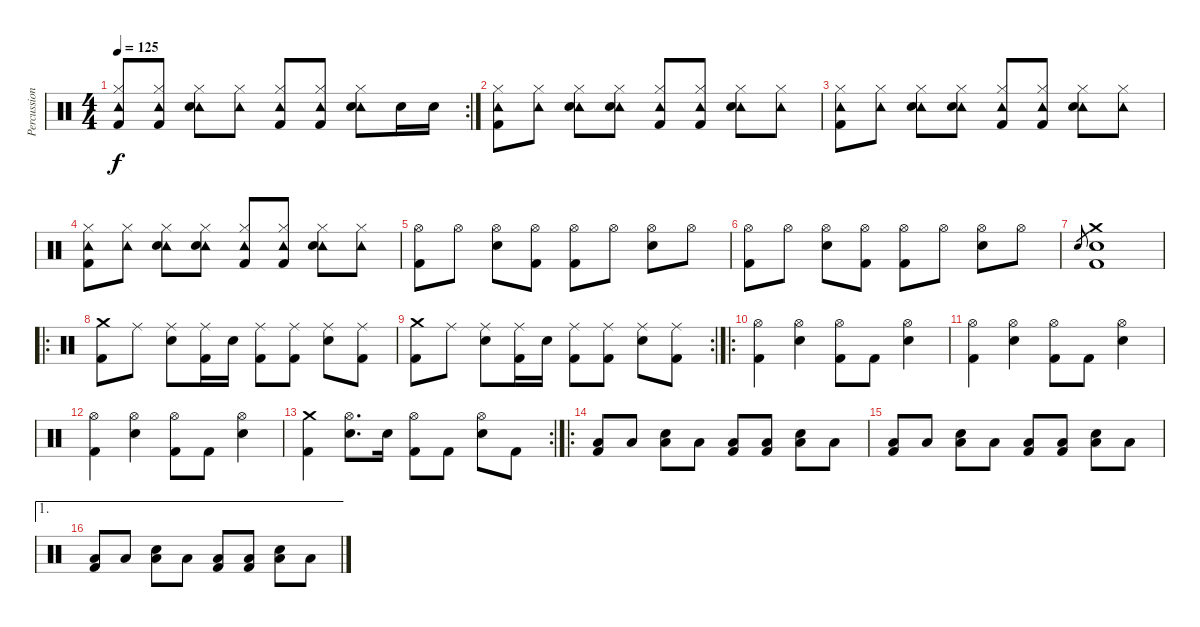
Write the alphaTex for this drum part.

\track ("Percussions" "Percussion") {instrument percussion}
\staff {score}
\articulation defaults
\rc 2
\ts (4 4)
\tempo 125
\clef neutral
\ks c
("Tambourine (hit)" "Hi-Hat (closed)" "Kick (hit) 2").8{dy f} ("Tambourine (hit)" "Hi-Hat (closed)" "Kick (hit) 2").8 ("Tambourine (hit)" "Hi-Hat (closed)" "Electric Snare (hit)").8 ("Tambourine (hit)" "Hi-Hat (closed)").8 ("Tambourine (hit)" "Hi-Hat (closed)" "Kick (hit) 2").8 ("Tambourine (hit)" "Hi-Hat (closed)" "Kick (hit) 2").8 ("Tambourine (hit)" "Hi-Hat (closed)" "Electric Snare (hit)").8 "Electric Snare (hit)".16 "Electric Snare (hit)".16 |
("Tambourine (hit)" "Hi-Hat (closed)" "Kick (hit) 2").8 ("Tambourine (hit)" "Hi-Hat (closed)").8 ("Tambourine (hit)" "Hi-Hat (closed)" "Electric Snare (hit)").8 ("Tambourine (hit)" "Hi-Hat (closed)" "Electric Snare (hit)").8 ("Tambourine (hit)" "Hi-Hat (closed)" "Kick (hit) 2").8 ("Tambourine (hit)" "Hi-Hat (closed)" "Kick (hit) 2").8 ("Tambourine (hit)" "Hi-Hat (closed)" "Electric Snare (hit)").8 ("Tambourine (hit)" "Hi-Hat (closed)").8 |
("Tambourine (hit)" "Hi-Hat (closed)" "Kick (hit) 2").8 ("Tambourine (hit)" "Hi-Hat (closed)").8 ("Tambourine (hit)" "Hi-Hat (closed)" "Electric Snare (hit)").8 ("Tambourine (hit)" "Hi-Hat (closed)" "Electric Snare (hit)").8 ("Tambourine (hit)" "Hi-Hat (closed)" "Kick (hit) 2").8 ("Tambourine (hit)" "Hi-Hat (closed)" "Kick (hit) 2").8 ("Tambourine (hit)" "Hi-Hat (closed)" "Electric Snare (hit)").8 ("Tambourine (hit)" "Hi-Hat (closed)").8 |
("Tambourine (hit)" "Hi-Hat (closed)" "Kick (hit) 2").8 ("Tambourine (hit)" "Hi-Hat (closed)").8 ("Tambourine (hit)" "Hi-Hat (closed)" "Electric Snare (hit)").8 ("Tambourine (hit)" "Hi-Hat (closed)" "Electric Snare (hit)").8 ("Tambourine (hit)" "Hi-Hat (closed)" "Kick (hit) 2").8 ("Tambourine (hit)" "Hi-Hat (closed)" "Kick (hit) 2").8 ("Tambourine (hit)" "Hi-Hat (closed)" "Electric Snare (hit)").8 ("Tambourine (hit)" "Hi-Hat (closed)").8 |
("Hi-Hat (open)" "Kick (hit) 2").8 "Hi-Hat (open)".8 ("Hi-Hat (open)" "Electric Snare (hit)").8 ("Hi-Hat (open)" "Kick (hit) 2").8 ("Hi-Hat (open)" "Kick (hit) 2").8 "Hi-Hat (open)".8 ("Hi-Hat (open)" "Electric Snare (hit)").8 "Hi-Hat (open)".8 |
("Hi-Hat (open)" "Kick (hit) 2").8 "Hi-Hat (open)".8 ("Hi-Hat (open)" "Electric Snare (hit)").8 ("Hi-Hat (open)" "Kick (hit) 2").8 ("Hi-Hat (open)" "Kick (hit) 2").8 "Hi-Hat (open)".8 ("Hi-Hat (open)" "Electric Snare (hit)").8 "Hi-Hat (open)".8 |
"Electric Snare (hit)".8{gr} ("Crash medium (hit)" "Electric Snare (hit)" "Kick (hit) 2").1 |
\ro
("Crash medium (hit)" "Kick (hit) 2").8 "Ride (middle)".8 ("Ride (middle)" "Electric Snare (hit)").8 ("Ride (middle)" "Kick (hit) 2").16 "Electric Snare (hit)".16 ("Ride (middle)" "Kick (hit) 2").8 ("Ride (middle)" "Kick (hit) 2").8 ("Ride (middle)" "Electric Snare (hit)").8 ("Ride (middle)" "Kick (hit) 2").8 |
\rc 2
("Crash medium (hit)" "Kick (hit) 2").8 "Ride (middle)".8 ("Ride (middle)" "Electric Snare (hit)").8 ("Ride (middle)" "Kick (hit) 2").16 "Electric Snare (hit)".16 ("Ride (middle)" "Kick (hit) 2").8 ("Ride (middle)" "Kick (hit) 2").8 ("Ride (middle)" "Electric Snare (hit)").8 ("Ride (middle)" "Kick (hit) 2").8 |
\ro
("Hi-Hat (open)" "Kick (hit) 2").4 ("Hi-Hat (open)" "Electric Snare (hit)").4 ("Hi-Hat (open)" "Kick (hit) 2").8 "Kick (hit) 2".8 ("Hi-Hat (open)" "Electric Snare (hit)").4 |
("Hi-Hat (open)" "Kick (hit) 2").4 ("Hi-Hat (open)" "Electric Snare (hit)").4 ("Hi-Hat (open)" "Kick (hit) 2").8 "Kick (hit) 2".8 ("Hi-Hat (open)" "Electric Snare (hit)").4 |
("Hi-Hat (open)" "Kick (hit) 2").4 ("Hi-Hat (open)" "Electric Snare (hit)").4 ("Hi-Hat (open)" "Kick (hit) 2").8 "Kick (hit) 2".8 ("Hi-Hat (open)" "Electric Snare (hit)").4 |
\rc 2
("Crash medium (hit)" "Kick (hit) 2").4 ("Hi-Hat (open)" "Electric Snare (hit)").8{d} "Electric Snare (hit)".16 ("Hi-Hat (open)" "Kick (hit) 2").8 "Kick (hit) 2".8 ("Hi-Hat (open)" "Electric Snare (hit)").8 "Kick (hit) 2".8 |
\ro
("Low Tom (hit)" "Kick (hit) 2").8 "Low Tom (hit)".8 ("Low Tom (hit)" "Electric Snare (hit)").8 "Low Tom (hit)".8 ("Low Tom (hit)" "Kick (hit) 2").8 ("Low Tom (hit)" "Kick (hit) 2").8 ("Low Tom (hit)" "Electric Snare (hit)").8 "Low Tom (hit)".8 |
("Low Tom (hit)" "Kick (hit) 2").8 "Low Tom (hit)".8 ("Low Tom (hit)" "Electric Snare (hit)").8 "Low Tom (hit)".8 ("Low Tom (hit)" "Kick (hit) 2").8 ("Low Tom (hit)" "Kick (hit) 2").8 ("Low Tom (hit)" "Electric Snare (hit)").8 "Low Tom (hit)".8 |
\ae 1
("Low Tom (hit)" "Kick (hit) 2").8 "Low Tom (hit)".8 ("Low Tom (hit)" "Electric Snare (hit)").8 "Low Tom (hit)".8 ("Low Tom (hit)" "Kick (hit) 2").8 ("Low Tom (hit)" "Kick (hit) 2").8 ("Low Tom (hit)" "Electric Snare (hit)").8 "Low Tom (hit)".8
